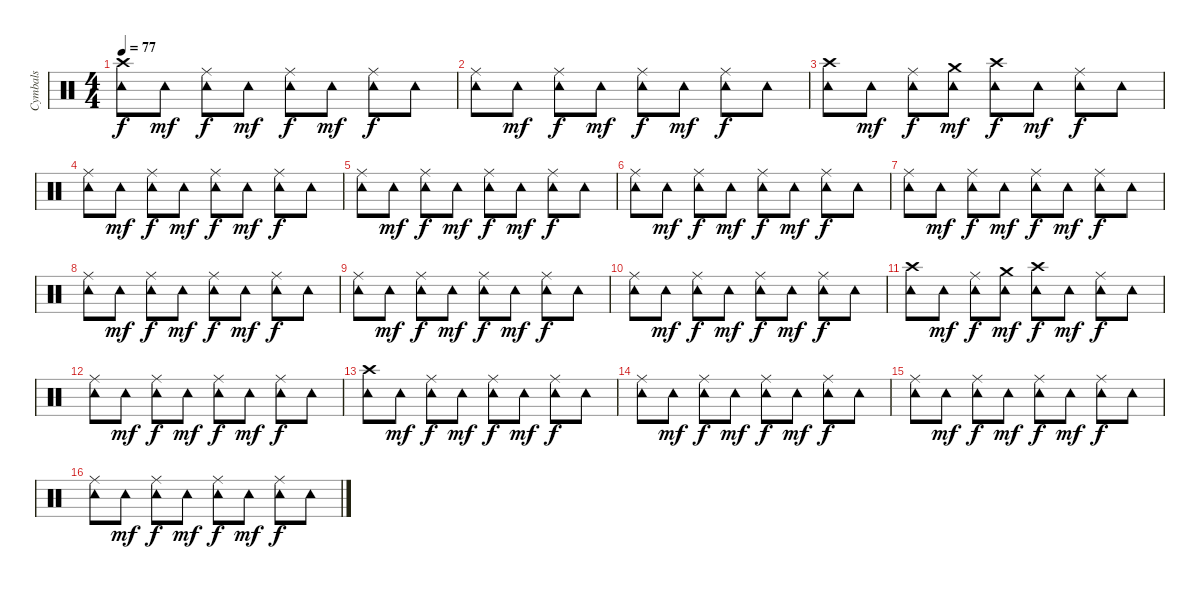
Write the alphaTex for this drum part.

\track ("Cymbals" "Cymbals") {instrument percussion}
\staff {score}
\articulation defaults
\ts (4 4)
\tempo 77
\clef neutral
\ks c
("Tambourine (hit)" "Crash high (hit)").8{dy f} "Tambourine (hit)".8{dy mf} ("Tambourine (hit)" "Ride (middle)").8{dy f} "Tambourine (hit)".8{dy mf} ("Tambourine (hit)" "Ride (middle)").8{dy f} "Tambourine (hit)".8{dy mf} ("Tambourine (hit)" "Ride (middle)").8{dy f} "Tambourine (hit)".8 |
("Tambourine (hit)" "Ride (middle)").8 "Tambourine (hit)".8{dy mf} ("Tambourine (hit)" "Ride (middle)").8{dy f} "Tambourine (hit)".8{dy mf} ("Tambourine (hit)" "Ride (middle)").8{dy f} "Tambourine (hit)".8{dy mf} ("Tambourine (hit)" "Ride (middle)").8{dy f} "Tambourine (hit)".8 |
("Tambourine (hit)" "Crash high (hit)").8 "Tambourine (hit)".8{dy mf} ("Tambourine (hit)" "Ride (middle)").8{dy f} ("Tambourine (hit)" "Crash medium (hit)").8{dy mf} ("Tambourine (hit)" "Crash high (hit)").8{dy f} "Tambourine (hit)".8{dy mf} ("Tambourine (hit)" "Ride (middle)").8{dy f} "Tambourine (hit)".8 |
("Tambourine (hit)" "Ride (middle)").8 "Tambourine (hit)".8{dy mf} ("Tambourine (hit)" "Ride (middle)").8{dy f} "Tambourine (hit)".8{dy mf} ("Tambourine (hit)" "Ride (middle)").8{dy f} "Tambourine (hit)".8{dy mf} ("Tambourine (hit)" "Ride (middle)").8{dy f} "Tambourine (hit)".8 |
("Tambourine (hit)" "Ride (middle)").8 "Tambourine (hit)".8{dy mf} ("Tambourine (hit)" "Ride (middle)").8{dy f} "Tambourine (hit)".8{dy mf} ("Tambourine (hit)" "Ride (middle)").8{dy f} "Tambourine (hit)".8{dy mf} ("Tambourine (hit)" "Ride (middle)").8{dy f} "Tambourine (hit)".8 |
("Tambourine (hit)" "Ride (middle)").8 "Tambourine (hit)".8{dy mf} ("Tambourine (hit)" "Ride (middle)").8{dy f} "Tambourine (hit)".8{dy mf} ("Tambourine (hit)" "Ride (middle)").8{dy f} "Tambourine (hit)".8{dy mf} ("Tambourine (hit)" "Ride (middle)").8{dy f} "Tambourine (hit)".8 |
("Tambourine (hit)" "Ride (middle)").8 "Tambourine (hit)".8{dy mf} ("Tambourine (hit)" "Ride (middle)").8{dy f} "Tambourine (hit)".8{dy mf} ("Tambourine (hit)" "Ride (middle)").8{dy f} "Tambourine (hit)".8{dy mf} ("Tambourine (hit)" "Ride (middle)").8{dy f} "Tambourine (hit)".8 |
("Tambourine (hit)" "Ride (middle)").8 "Tambourine (hit)".8{dy mf} ("Tambourine (hit)" "Ride (middle)").8{dy f} "Tambourine (hit)".8{dy mf} ("Tambourine (hit)" "Ride (middle)").8{dy f} "Tambourine (hit)".8{dy mf} ("Tambourine (hit)" "Ride (middle)").8{dy f} "Tambourine (hit)".8 |
("Tambourine (hit)" "Ride (middle)").8 "Tambourine (hit)".8{dy mf} ("Tambourine (hit)" "Ride (middle)").8{dy f} "Tambourine (hit)".8{dy mf} ("Tambourine (hit)" "Ride (middle)").8{dy f} "Tambourine (hit)".8{dy mf} ("Tambourine (hit)" "Ride (middle)").8{dy f} "Tambourine (hit)".8 |
("Tambourine (hit)" "Ride (middle)").8 "Tambourine (hit)".8{dy mf} ("Tambourine (hit)" "Ride (middle)").8{dy f} "Tambourine (hit)".8{dy mf} ("Tambourine (hit)" "Ride (middle)").8{dy f} "Tambourine (hit)".8{dy mf} ("Tambourine (hit)" "Ride (middle)").8{dy f} "Tambourine (hit)".8 |
("Tambourine (hit)" "Crash high (hit)").8 "Tambourine (hit)".8{dy mf} ("Tambourine (hit)" "Ride (middle)").8{dy f} ("Tambourine (hit)" "Crash medium (hit)").8{dy mf} ("Tambourine (hit)" "Crash high (hit)").8{dy f} "Tambourine (hit)".8{dy mf} ("Tambourine (hit)" "Ride (middle)").8{dy f} "Tambourine (hit)".8 |
("Tambourine (hit)" "Ride (middle)").8 "Tambourine (hit)".8{dy mf} ("Tambourine (hit)" "Ride (middle)").8{dy f} "Tambourine (hit)".8{dy mf} ("Tambourine (hit)" "Ride (middle)").8{dy f} "Tambourine (hit)".8{dy mf} ("Tambourine (hit)" "Ride (middle)").8{dy f} "Tambourine (hit)".8 |
("Tambourine (hit)" "Crash high (hit)").8 "Tambourine (hit)".8{dy mf} ("Tambourine (hit)" "Ride (middle)").8{dy f} "Tambourine (hit)".8{dy mf} ("Tambourine (hit)" "Ride (middle)").8{dy f} "Tambourine (hit)".8{dy mf} ("Tambourine (hit)" "Ride (middle)").8{dy f} "Tambourine (hit)".8 |
("Tambourine (hit)" "Ride (middle)").8 "Tambourine (hit)".8{dy mf} ("Tambourine (hit)" "Ride (middle)").8{dy f} "Tambourine (hit)".8{dy mf} ("Tambourine (hit)" "Ride (middle)").8{dy f} "Tambourine (hit)".8{dy mf} ("Tambourine (hit)" "Ride (middle)").8{dy f} "Tambourine (hit)".8 |
("Tambourine (hit)" "Ride (middle)").8 "Tambourine (hit)".8{dy mf} ("Tambourine (hit)" "Ride (middle)").8{dy f} "Tambourine (hit)".8{dy mf} ("Tambourine (hit)" "Ride (middle)").8{dy f} "Tambourine (hit)".8{dy mf} ("Tambourine (hit)" "Ride (middle)").8{dy f} "Tambourine (hit)".8 |
("Tambourine (hit)" "Ride (middle)").8 "Tambourine (hit)".8{dy mf} ("Tambourine (hit)" "Ride (middle)").8{dy f} "Tambourine (hit)".8{dy mf} ("Tambourine (hit)" "Ride (middle)").8{dy f} "Tambourine (hit)".8{dy mf} ("Tambourine (hit)" "Ride (middle)").8{dy f} "Tambourine (hit)".8
